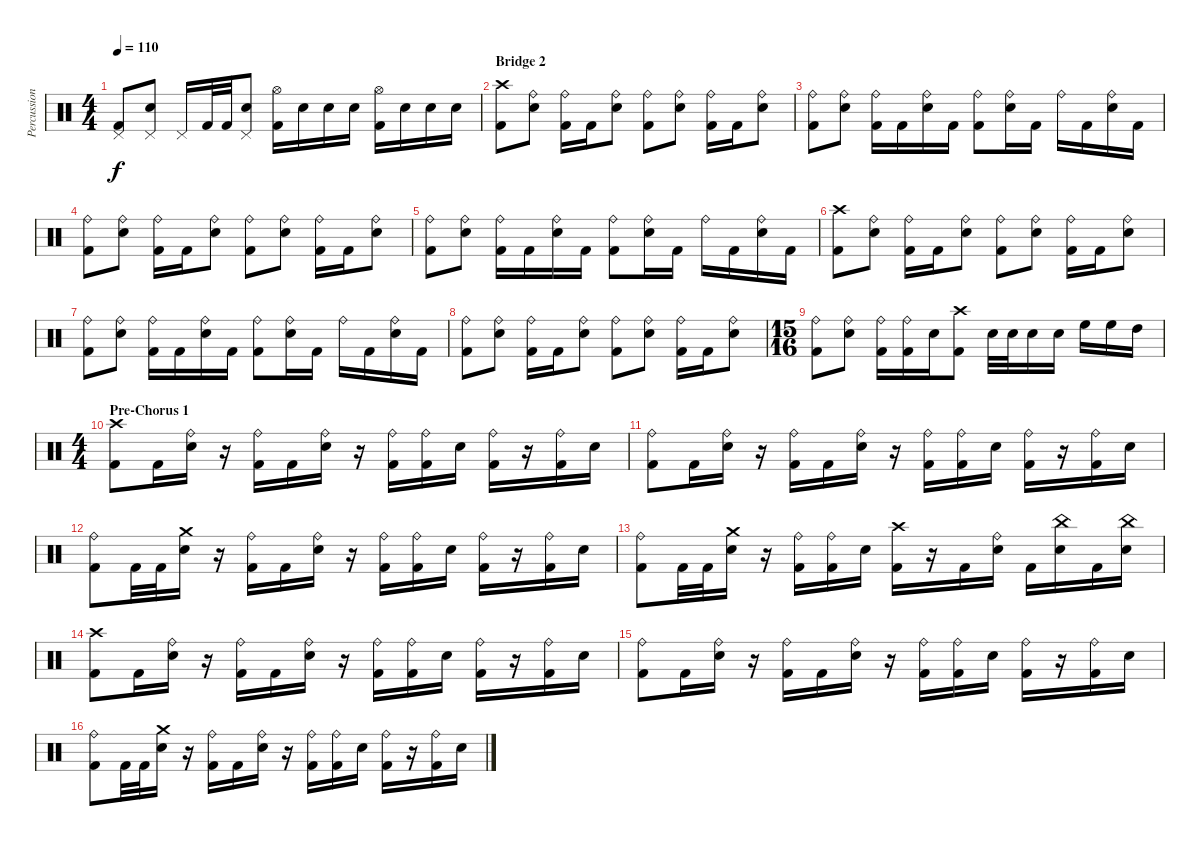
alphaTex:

\track ("Percussion" "Percussion") {instrument percussion}
\staff {score}
\articulation defaults
\ts (4 4)
\tempo 110
\clef neutral
\ks c
("Kick (hit) 2" "Pedal Hi-Hat (hit)").8{dy f} ("Electric Snare (hit)" "Pedal Hi-Hat (hit)").8 "Pedal Hi-Hat (hit)".16 "Kick (hit) 2".32 "Kick (hit) 2".32 ("Electric Snare (hit)" "Pedal Hi-Hat (hit)").8 ("Kick (hit) 2" "Hi-Hat (open)").16 "Electric Snare (hit)".16 "Electric Snare (hit)".16 "Electric Snare (hit)".16 ("Kick (hit) 2" "Hi-Hat (open)").16 "Electric Snare (hit)".16 "Electric Snare (hit)".16 "Electric Snare (hit)".16 |
\section ("" "Bridge 2")
("Kick (hit) 2" "Crash high (hit)").8 ("Electric Snare (hit)" "Ride (bell)").8 ("Kick (hit) 2" "Ride (bell)").16 "Kick (hit) 2".16 ("Electric Snare (hit)" "Ride (bell)").8 ("Kick (hit) 2" "Ride (bell)").8 ("Electric Snare (hit)" "Ride (bell)").8 ("Kick (hit) 2" "Ride (bell)").16 "Kick (hit) 2".16 ("Electric Snare (hit)" "Ride (bell)").8 |
("Kick (hit) 2" "Ride (bell)").8 ("Electric Snare (hit)" "Ride (bell)").8 ("Kick (hit) 2" "Ride (bell)").16 "Kick (hit) 2".16 ("Electric Snare (hit)" "Ride (bell)").16 "Kick (hit) 2".16 ("Kick (hit) 2" "Ride (bell)").8 ("Electric Snare (hit)" "Ride (bell)").16 "Kick (hit) 2".16 "Ride (bell)".16 "Kick (hit) 2".16 ("Electric Snare (hit)" "Ride (bell)").16 "Kick (hit) 2".16 |
("Kick (hit) 2" "Ride (bell)").8 ("Electric Snare (hit)" "Ride (bell)").8 ("Kick (hit) 2" "Ride (bell)").16 "Kick (hit) 2".16 ("Electric Snare (hit)" "Ride (bell)").8 ("Kick (hit) 2" "Ride (bell)").8 ("Electric Snare (hit)" "Ride (bell)").8 ("Kick (hit) 2" "Ride (bell)").16 "Kick (hit) 2".16 ("Electric Snare (hit)" "Ride (bell)").8 |
("Kick (hit) 2" "Ride (bell)").8 ("Electric Snare (hit)" "Ride (bell)").8 ("Kick (hit) 2" "Ride (bell)").16 "Kick (hit) 2".16 ("Electric Snare (hit)" "Ride (bell)").16 "Kick (hit) 2".16 ("Kick (hit) 2" "Ride (bell)").8 ("Electric Snare (hit)" "Ride (bell)").16 "Kick (hit) 2".16 "Ride (bell)".16 "Kick (hit) 2".16 ("Electric Snare (hit)" "Ride (bell)").16 "Kick (hit) 2".16 |
("Kick (hit) 2" "Crash high (hit)").8 ("Electric Snare (hit)" "Ride (bell)").8 ("Kick (hit) 2" "Ride (bell)").16 "Kick (hit) 2".16 ("Electric Snare (hit)" "Ride (bell)").8 ("Kick (hit) 2" "Ride (bell)").8 ("Electric Snare (hit)" "Ride (bell)").8 ("Kick (hit) 2" "Ride (bell)").16 "Kick (hit) 2".16 ("Electric Snare (hit)" "Ride (bell)").8 |
("Kick (hit) 2" "Ride (bell)").8 ("Electric Snare (hit)" "Ride (bell)").8 ("Kick (hit) 2" "Ride (bell)").16 "Kick (hit) 2".16 ("Electric Snare (hit)" "Ride (bell)").16 "Kick (hit) 2".16 ("Kick (hit) 2" "Ride (bell)").8 ("Electric Snare (hit)" "Ride (bell)").16 "Kick (hit) 2".16 "Ride (bell)".16 "Kick (hit) 2".16 ("Electric Snare (hit)" "Ride (bell)").16 "Kick (hit) 2".16 |
("Kick (hit) 2" "Ride (bell)").8 ("Electric Snare (hit)" "Ride (bell)").8 ("Kick (hit) 2" "Ride (bell)").16 "Kick (hit) 2".16 ("Electric Snare (hit)" "Ride (bell)").8 ("Kick (hit) 2" "Ride (bell)").8 ("Electric Snare (hit)" "Ride (bell)").8 ("Kick (hit) 2" "Ride (bell)").16 "Kick (hit) 2".16 ("Electric Snare (hit)" "Ride (bell)").8 |
\ts (15 16)
("Kick (hit) 2" "Ride (bell)").8 ("Electric Snare (hit)" "Ride (bell)").8 ("Kick (hit) 2" "Ride (bell)").16 ("Kick (hit) 2" "Ride (bell)").16 "Electric Snare (hit)".16 ("Kick (hit) 2" "Crash high (hit)").8 "Electric Snare (hit)".32 "Electric Snare (hit)".32 "Electric Snare (hit)".16 "Electric Snare (hit)".16 "High Floor Tom (hit)".16 "High Floor Tom (hit)".16 "High Tom (hit)".16 |
\ts (4 4)
\section ("" "Pre-Chorus 1")
("Kick (hit) 2" "Crash high (hit)").8 "Kick (hit) 2".16 ("Electric Snare (hit)" "Ride (bell)").16 r.16 ("Kick (hit) 2" "Ride (bell)").16 "Kick (hit) 2".16 ("Electric Snare (hit)" "Ride (bell)").16 r.16 ("Kick (hit) 2" "Ride (bell)").16 ("Kick (hit) 2" "Ride (bell)").16 "Electric Snare (hit)".16 ("Kick (hit) 2" "Ride (bell)").16 r.16 ("Kick (hit) 2" "Ride (bell)").16 "Electric Snare (hit)".16 |
("Kick (hit) 2" "Ride (bell)").8 "Kick (hit) 2".16 ("Electric Snare (hit)" "Ride (bell)").16 r.16 ("Kick (hit) 2" "Ride (bell)").16 "Kick (hit) 2".16 ("Electric Snare (hit)" "Ride (bell)").16 r.16 ("Kick (hit) 2" "Ride (bell)").16 ("Kick (hit) 2" "Ride (bell)").16 "Electric Snare (hit)".16 ("Kick (hit) 2" "Ride (bell)").16 r.16 ("Kick (hit) 2" "Ride (bell)").16 "Electric Snare (hit)".16 |
("Kick (hit) 2" "Ride (bell)").8 "Kick (hit) 2".32 "Kick (hit) 2".32 ("Electric Snare (hit)" "Crash medium (hit)").16 r.16 ("Kick (hit) 2" "Ride (bell)").16 "Kick (hit) 2".16 ("Electric Snare (hit)" "Ride (bell)").16 r.16 ("Kick (hit) 2" "Ride (bell)").16 ("Kick (hit) 2" "Ride (bell)").16 "Electric Snare (hit)".16 ("Kick (hit) 2" "Ride (bell)").16 r.16 ("Kick (hit) 2" "Ride (bell)").16 "Electric Snare (hit)".16 |
("Kick (hit) 2" "Ride (bell)").8 "Kick (hit) 2".32 "Kick (hit) 2".32 ("Electric Snare (hit)" "Crash medium (hit)").16 r.16 ("Kick (hit) 2" "Ride (bell)").16 ("Kick (hit) 2" "Ride (bell)").16 "Electric Snare (hit)".16 ("Kick (hit) 2" "Crash high (hit)").16 r.16 "Kick (hit) 2".16 ("Electric Snare (hit)" "Ride (bell)").16 "Kick (hit) 2".16 ("Electric Snare (hit)" "China (hit)").16 "Kick (hit) 2".16 ("Electric Snare (hit)" "China (hit)").16 |
("Kick (hit) 2" "Crash high (hit)").8 "Kick (hit) 2".16 ("Electric Snare (hit)" "Ride (bell)").16 r.16 ("Kick (hit) 2" "Ride (bell)").16 "Kick (hit) 2".16 ("Electric Snare (hit)" "Ride (bell)").16 r.16 ("Kick (hit) 2" "Ride (bell)").16 ("Kick (hit) 2" "Ride (bell)").16 "Electric Snare (hit)".16 ("Kick (hit) 2" "Ride (bell)").16 r.16 ("Kick (hit) 2" "Ride (bell)").16 "Electric Snare (hit)".16 |
("Kick (hit) 2" "Ride (bell)").8 "Kick (hit) 2".16 ("Electric Snare (hit)" "Ride (bell)").16 r.16 ("Kick (hit) 2" "Ride (bell)").16 "Kick (hit) 2".16 ("Electric Snare (hit)" "Ride (bell)").16 r.16 ("Kick (hit) 2" "Ride (bell)").16 ("Kick (hit) 2" "Ride (bell)").16 "Electric Snare (hit)".16 ("Kick (hit) 2" "Ride (bell)").16 r.16 ("Kick (hit) 2" "Ride (bell)").16 "Electric Snare (hit)".16 |
("Kick (hit) 2" "Ride (bell)").8 "Kick (hit) 2".32 "Kick (hit) 2".32 ("Electric Snare (hit)" "Crash medium (hit)").16 r.16 ("Kick (hit) 2" "Ride (bell)").16 "Kick (hit) 2".16 ("Electric Snare (hit)" "Ride (bell)").16 r.16 ("Kick (hit) 2" "Ride (bell)").16 ("Kick (hit) 2" "Ride (bell)").16 "Electric Snare (hit)".16 ("Kick (hit) 2" "Ride (bell)").16 r.16 ("Kick (hit) 2" "Ride (bell)").16 "Electric Snare (hit)".16
